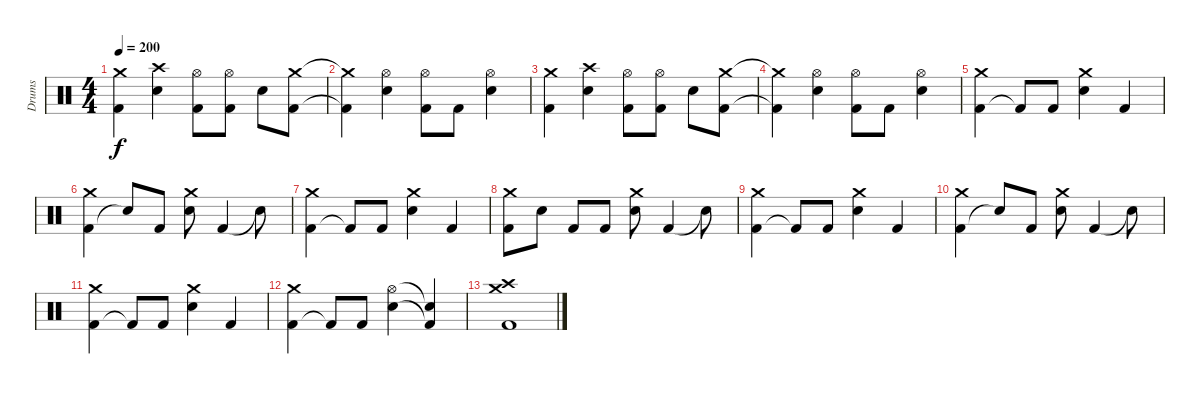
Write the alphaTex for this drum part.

\track ("Drums" "Drums") {instrument percussion}
\staff {score}
\articulation defaults
\ts (4 4)
\tempo 200
\clef neutral
\ks c
("Crash medium (hit)" "Kick (hit) 2").4{dy f} ("Crash high (hit)" "Electric Snare (hit)").4 ("Kick (hit) 2" "Hi-Hat (open)").8 ("Kick (hit) 2" "Hi-Hat (open)").8 "Electric Snare (hit)".8 ("Crash medium (hit)" "Kick (hit) 2").8 |
("Crash medium (hit)"{t} "Kick (hit) 2"{t}).4 ("Hi-Hat (open)" "Electric Snare (hit)").4 ("Kick (hit) 2" "Hi-Hat (open)").8 "Kick (hit) 2".8 ("Electric Snare (hit)" "Hi-Hat (open)").4 |
("Crash medium (hit)" "Kick (hit) 2").4 ("Crash high (hit)" "Electric Snare (hit)").4 ("Kick (hit) 2" "Hi-Hat (open)").8 ("Kick (hit) 2" "Hi-Hat (open)").8 "Electric Snare (hit)".8 ("Crash medium (hit)" "Kick (hit) 2").8 |
("Crash medium (hit)"{t} "Kick (hit) 2"{t}).4 ("Hi-Hat (open)" "Electric Snare (hit)").4 ("Kick (hit) 2" "Hi-Hat (open)").8 "Kick (hit) 2".8 ("Electric Snare (hit)" "Hi-Hat (open)").4 |
("Kick (hit) 2" "Crash medium (hit)").4 "Kick (hit) 2"{t}.8 "Kick (hit) 2".8 ("Electric Snare (hit)" "Crash medium (hit)").4 "Kick (hit) 2".4 |
("Kick (hit) 2" "Crash medium (hit)").4 "Electric Snare (hit)"{t}.8 "Kick (hit) 2".8 ("Electric Snare (hit)" "Crash medium (hit)").8 "Kick (hit) 2".4 "Snare (hit)"{t}.8 |
("Kick (hit) 2" "Crash medium (hit)").4 "Kick (hit) 2"{t}.8 "Kick (hit) 2".8 ("Electric Snare (hit)" "Crash medium (hit)").4 "Kick (hit) 2".4 |
("Kick (hit) 2" "Crash medium (hit)").8 "Electric Snare (hit)".8 "Kick (hit) 2".8 "Kick (hit) 2".8 ("Electric Snare (hit)" "Crash medium (hit)").8 "Kick (hit) 2".4 "Snare (hit)"{t}.8 |
("Kick (hit) 2" "Crash medium (hit)").4 "Kick (hit) 2"{t}.8 "Kick (hit) 2".8 ("Electric Snare (hit)" "Crash medium (hit)").4 "Kick (hit) 2".4 |
("Kick (hit) 2" "Crash medium (hit)").4 "Electric Snare (hit)"{t}.8 "Kick (hit) 2".8 ("Electric Snare (hit)" "Crash medium (hit)").8 "Kick (hit) 2".4 "Snare (hit)"{t}.8 |
("Kick (hit) 2" "Crash medium (hit)").4 "Kick (hit) 2"{t}.8 "Kick (hit) 2".8 ("Electric Snare (hit)" "Crash medium (hit)").4 "Kick (hit) 2".4 |
("Kick (hit) 2" "Crash medium (hit)").4 "Kick (hit) 2"{t}.8 "Kick (hit) 2".8 ("Electric Snare (hit)" "Hi-Hat (open)").4 ("Kick (hit) 2"{t} "Snare (hit)"{t}).4 |
("Crash medium (hit)" "Crash high (hit)" "Kick (hit) 2").1
